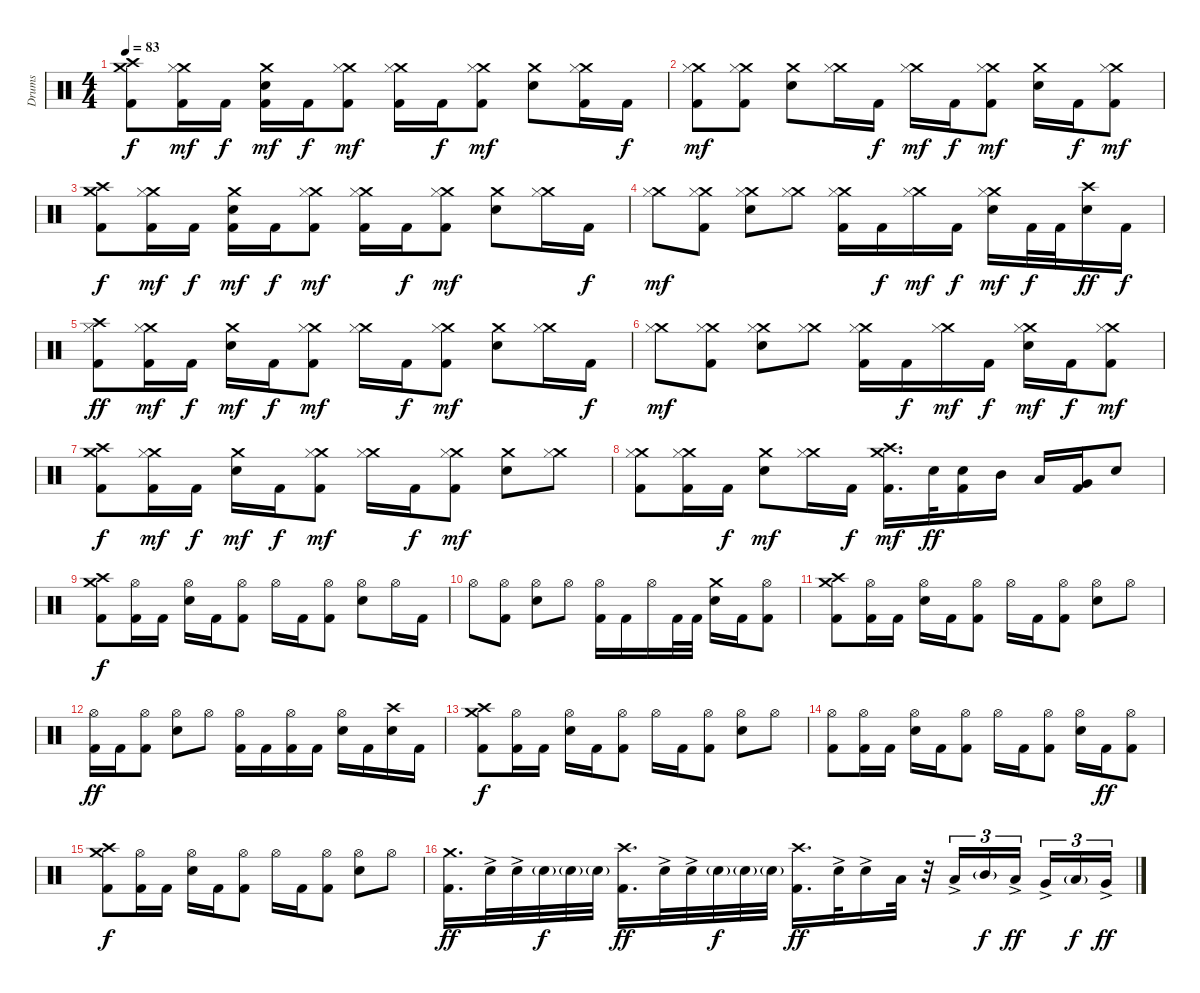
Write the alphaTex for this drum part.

\track ("Drums" "Drums") {instrument percussion}
\staff {score}
\articulation defaults
\ts (4 4)
\tempo 83
\clef neutral
\ks c
("Crash high (hit)" "Crash medium (hit)" "Kick (hit) 2").8{dy f} ("Crash medium (hit)" "Hi-Hat (closed)" "Kick (hit) 2").16{dy mf} "Kick (hit) 2".16{dy f} ("Crash medium (hit)" "Electric Snare (hit)" "Kick (hit) 2").16{dy mf} "Kick (hit) 2".16{dy f} ("Crash medium (hit)" "Hi-Hat (closed)" "Kick (hit) 2").8{dy mf} ("Crash medium (hit)" "Hi-Hat (closed)" "Kick (hit) 2").16 "Kick (hit) 2".16{dy f} ("Crash medium (hit)" "Hi-Hat (closed)" "Kick (hit) 2").8{dy mf} ("Crash medium (hit)" "Electric Snare (hit)").8 ("Crash medium (hit)" "Hi-Hat (closed)" "Kick (hit) 2").16 "Kick (hit) 2".16{dy f} |
("Crash medium (hit)" "Hi-Hat (closed)" "Kick (hit) 2").8{dy mf} ("Crash medium (hit)" "Hi-Hat (closed)" "Kick (hit) 2").8 ("Crash medium (hit)" "Electric Snare (hit)").8 ("Crash medium (hit)" "Hi-Hat (closed)").16 "Kick (hit) 2".16{dy f} ("Crash medium (hit)" "Hi-Hat (closed)").16{dy mf} "Kick (hit) 2".16{dy f} ("Crash medium (hit)" "Hi-Hat (closed)" "Kick (hit) 2").8{dy mf} ("Crash medium (hit)" "Electric Snare (hit)").16 "Kick (hit) 2".16{dy f} ("Crash medium (hit)" "Hi-Hat (closed)" "Kick (hit) 2").8{dy mf} |
("Crash high (hit)" "Crash medium (hit)" "Kick (hit) 2").8{dy f} ("Crash medium (hit)" "Hi-Hat (closed)" "Kick (hit) 2").16{dy mf} "Kick (hit) 2".16{dy f} ("Crash medium (hit)" "Electric Snare (hit)" "Kick (hit) 2").16{dy mf} "Kick (hit) 2".16{dy f} ("Crash medium (hit)" "Hi-Hat (closed)" "Kick (hit) 2").8{dy mf} ("Crash medium (hit)" "Hi-Hat (closed)" "Kick (hit) 2").16 "Kick (hit) 2".16{dy f} ("Crash medium (hit)" "Hi-Hat (closed)" "Kick (hit) 2").8{dy mf} ("Crash medium (hit)" "Electric Snare (hit)").8 ("Crash medium (hit)" "Hi-Hat (closed)").16 "Kick (hit) 2".16{dy f} |
("Crash medium (hit)" "Hi-Hat (closed)").8{dy mf} ("Crash medium (hit)" "Hi-Hat (closed)" "Kick (hit) 2").8 ("Crash medium (hit)" "Hi-Hat (closed)" "Electric Snare (hit)").8 ("Crash medium (hit)" "Hi-Hat (closed)").8 ("Crash medium (hit)" "Hi-Hat (closed)" "Kick (hit) 2").16 "Kick (hit) 2".16{dy f} ("Crash medium (hit)" "Hi-Hat (closed)").16{dy mf} "Kick (hit) 2".16{dy f} ("Crash medium (hit)" "Hi-Hat (closed)" "Electric Snare (hit)").16{dy mf} "Kick (hit) 2".32{dy f} "Kick (hit) 2".32 ("Crash high (hit)" "Electric Snare (hit)").16{dy ff} "Kick (hit) 2".16{dy f} |
("Crash high (hit)" "Hi-Hat (closed)" "Kick (hit) 2").8{dy ff} ("Crash medium (hit)" "Hi-Hat (closed)" "Kick (hit) 2").16{dy mf} "Kick (hit) 2".16{dy f} ("Crash medium (hit)" "Electric Snare (hit)").16{dy mf} "Kick (hit) 2".16{dy f} ("Crash medium (hit)" "Hi-Hat (closed)" "Kick (hit) 2").8{dy mf} ("Crash medium (hit)" "Hi-Hat (closed)").16 "Kick (hit) 2".16{dy f} ("Crash medium (hit)" "Hi-Hat (closed)" "Kick (hit) 2").8{dy mf} ("Crash medium (hit)" "Electric Snare (hit)").8 ("Crash medium (hit)" "Hi-Hat (closed)").16 "Kick (hit) 2".16{dy f} |
("Crash medium (hit)" "Hi-Hat (closed)").8{dy mf} ("Crash medium (hit)" "Hi-Hat (closed)" "Kick (hit) 2").8 ("Crash medium (hit)" "Hi-Hat (closed)" "Electric Snare (hit)").8 ("Crash medium (hit)" "Hi-Hat (closed)").8 ("Crash medium (hit)" "Hi-Hat (closed)" "Kick (hit) 2").16 "Kick (hit) 2".16{dy f} ("Crash medium (hit)" "Hi-Hat (closed)").16{dy mf} "Kick (hit) 2".16{dy f} ("Crash medium (hit)" "Hi-Hat (closed)" "Electric Snare (hit)").16{dy mf} "Kick (hit) 2".16{dy f} ("Crash medium (hit)" "Hi-Hat (closed)" "Kick (hit) 2").8{dy mf} |
("Crash high (hit)" "Crash medium (hit)" "Kick (hit) 2").8{dy f} ("Crash medium (hit)" "Hi-Hat (closed)" "Kick (hit) 2").16{dy mf} "Kick (hit) 2".16{dy f} ("Crash medium (hit)" "Electric Snare (hit)").16{dy mf} "Kick (hit) 2".16{dy f} ("Crash medium (hit)" "Hi-Hat (closed)" "Kick (hit) 2").8{dy mf} ("Crash medium (hit)" "Hi-Hat (closed)").16 "Kick (hit) 2".16{dy f} ("Crash medium (hit)" "Hi-Hat (closed)" "Kick (hit) 2").8{dy mf} ("Crash medium (hit)" "Electric Snare (hit)").8 ("Crash medium (hit)" "Hi-Hat (closed)").8 |
("Crash medium (hit)" "Hi-Hat (closed)" "Kick (hit) 2").8 ("Crash medium (hit)" "Hi-Hat (closed)" "Kick (hit) 2").16 "Kick (hit) 2".16{dy f} ("Crash medium (hit)" "Electric Snare (hit)").8{dy mf} ("Crash medium (hit)" "Hi-Hat (closed)").16 "Kick (hit) 2".16{dy f} ("Crash medium (hit)" "Crash high (hit)" "Kick (hit) 2").16{d dy mf} "Electric Snare (hit)".32{dy ff} ("Electric Snare (hit)" "Kick (hit) 2").16 "Mid Tom (hit)".16 "Low Tom (hit)".16 ("Very Low Tom (hit)" "Kick (hit) 2").16 "Electric Snare (hit)".8 |
("Crash high (hit)" "Crash medium (hit)" "Kick (hit) 2").8{dy f} ("Hi-Hat (open)" "Kick (hit) 2").16 "Kick (hit) 2".16 ("Hi-Hat (open)" "Electric Snare (hit)").16 "Kick (hit) 2".16 ("Hi-Hat (open)" "Kick (hit) 2").8 "Hi-Hat (open)".16 "Kick (hit) 2".16 ("Hi-Hat (open)" "Kick (hit) 2").8 ("Hi-Hat (open)" "Electric Snare (hit)").8 "Hi-Hat (open)".16 "Kick (hit) 2".16 |
"Hi-Hat (open)".8 ("Hi-Hat (open)" "Kick (hit) 2").8 ("Hi-Hat (open)" "Electric Snare (hit)").8 "Hi-Hat (open)".8 ("Hi-Hat (open)" "Kick (hit) 2").16 "Kick (hit) 2".16 "Hi-Hat (open)".16 "Kick (hit) 2".32 "Kick (hit) 2".32 ("Crash medium (hit)" "Electric Snare (hit)").16 "Kick (hit) 2".16 ("Hi-Hat (open)" "Kick (hit) 2").8 |
("Crash high (hit)" "Crash medium (hit)" "Kick (hit) 2").8 ("Hi-Hat (open)" "Kick (hit) 2").16 "Kick (hit) 2".16 ("Hi-Hat (open)" "Electric Snare (hit)").16 "Kick (hit) 2".16 ("Hi-Hat (open)" "Kick (hit) 2").8 "Hi-Hat (open)".16 "Kick (hit) 2".16 ("Hi-Hat (open)" "Kick (hit) 2").8 ("Hi-Hat (open)" "Electric Snare (hit)").8 "Hi-Hat (open)".8 |
("Hi-Hat (open)" "Kick (hit) 2").16{dy ff} "Kick (hit) 2".16 ("Hi-Hat (open)" "Kick (hit) 2").8 ("Hi-Hat (open)" "Electric Snare (hit)").8 "Hi-Hat (open)".8 ("Hi-Hat (open)" "Kick (hit) 2").16 "Kick (hit) 2".16 ("Hi-Hat (open)" "Kick (hit) 2").16 "Kick (hit) 2".16 ("Hi-Hat (open)" "Electric Snare (hit)").16 "Kick (hit) 2".16 ("Crash high (hit)" "Electric Snare (hit)").16 "Kick (hit) 2".16 |
("Crash high (hit)" "Crash medium (hit)" "Kick (hit) 2").8{dy f} ("Hi-Hat (open)" "Kick (hit) 2").16 "Kick (hit) 2".16 ("Hi-Hat (open)" "Electric Snare (hit)").16 "Kick (hit) 2".16 ("Hi-Hat (open)" "Kick (hit) 2").8 "Hi-Hat (open)".16 "Kick (hit) 2".16 ("Hi-Hat (open)" "Kick (hit) 2").8 ("Hi-Hat (open)" "Electric Snare (hit)").8 "Hi-Hat (open)".8 |
("Hi-Hat (open)" "Kick (hit) 2").8 ("Hi-Hat (open)" "Kick (hit) 2").16 "Kick (hit) 2".16 ("Hi-Hat (open)" "Electric Snare (hit)").16 "Kick (hit) 2".16 ("Hi-Hat (open)" "Kick (hit) 2").8 "Hi-Hat (open)".16 "Kick (hit) 2".16 ("Hi-Hat (open)" "Kick (hit) 2").8 ("Hi-Hat (open)" "Electric Snare (hit)").16 "Kick (hit) 2".16{dy ff} ("Hi-Hat (open)" "Kick (hit) 2").8 |
("Crash high (hit)" "Crash medium (hit)" "Kick (hit) 2").8{dy f} ("Hi-Hat (open)" "Kick (hit) 2").16 "Kick (hit) 2".16 ("Hi-Hat (open)" "Electric Snare (hit)").16 "Kick (hit) 2".16 ("Hi-Hat (open)" "Kick (hit) 2").8 "Hi-Hat (open)".16 "Kick (hit) 2".16 ("Hi-Hat (open)" "Kick (hit) 2").8 ("Hi-Hat (open)" "Electric Snare (hit)").8 "Hi-Hat (open)".8 |
("Crash medium (hit)" "Kick (hit) 2").16{d dy ff} "Electric Snare (hit)"{ac}.32 "Electric Snare (hit)"{ac}.32 "Electric Snare (hit)"{g}.32{dy f} "Electric Snare (hit)"{g}.32 "Electric Snare (hit)"{g}.32 ("Crash high (hit)" "Kick (hit) 2").16{d dy ff} "Electric Snare (hit)"{ac}.32 "Electric Snare (hit)"{ac}.32 "Electric Snare (hit)"{g}.32{dy f} "Electric Snare (hit)"{g}.32 "Electric Snare (hit)"{g}.32 ("Crash high (hit)" "Kick (hit) 2").16{d dy ff} "Electric Snare (hit)"{ac}.32 "Electric Snare (hit)"{ac}.16 "Low Tom (hit)".32 r.32 "Low Tom (hit)"{ac}.16{tu (3 2)} "Mid Tom (hit)"{g}.16{tu (3 2) dy f} "Low Tom (hit)"{ac}.16{tu (3 2) dy ff beam splitsecondary} "Very Low Tom (hit)"{ac}.16{tu (3 2)} "Low Tom (hit)"{g}.16{tu (3 2) dy f} "Very Low Tom (hit)"{ac}.16{tu (3 2) dy ff}
